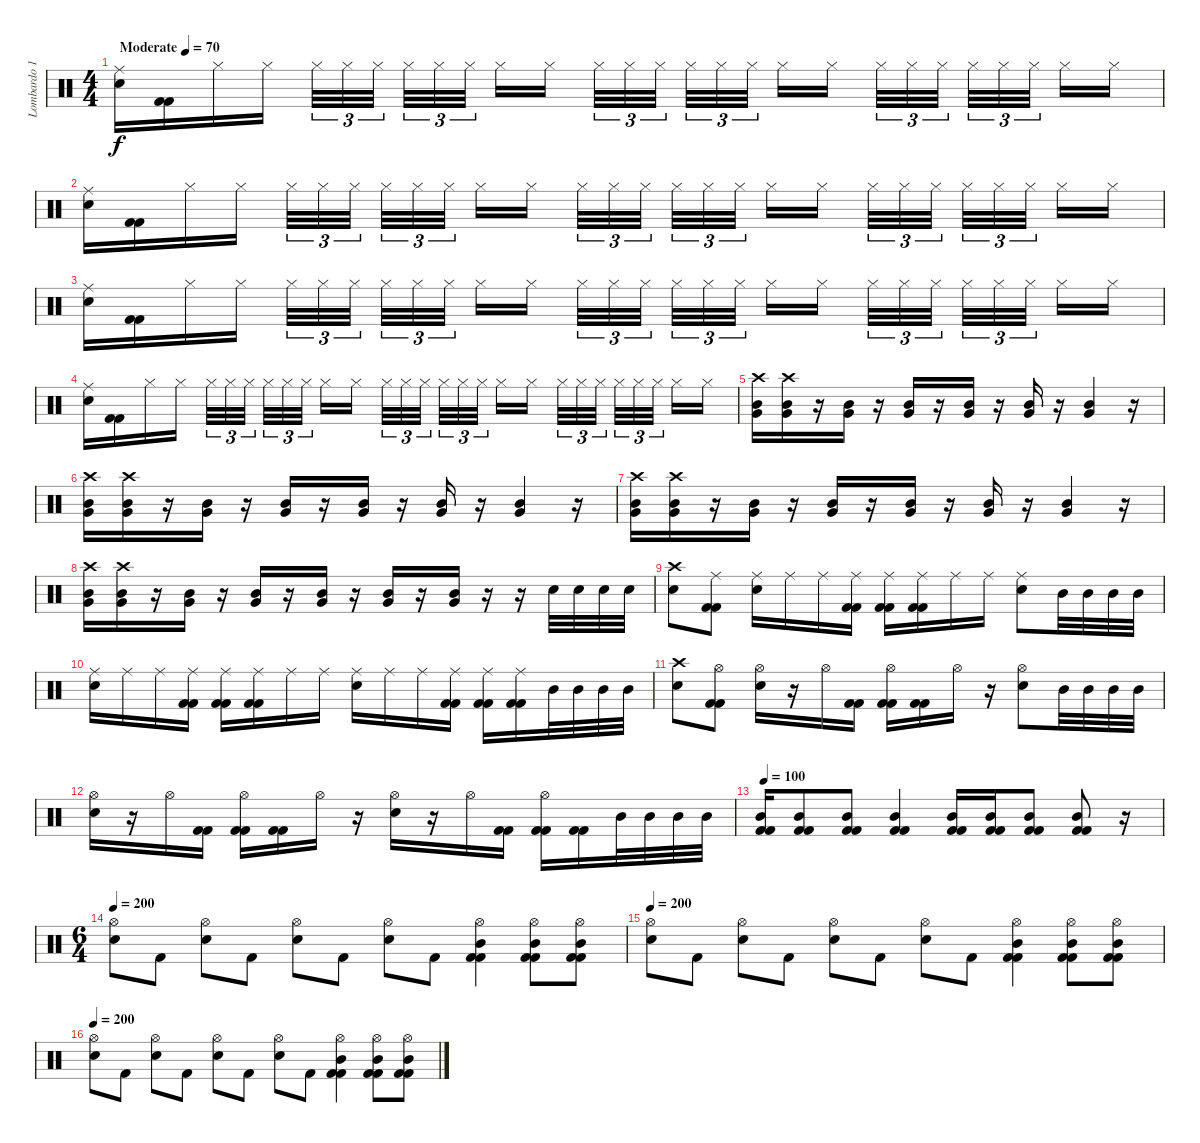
\track ("Lombardo 1" "Lombardo 1") {instrument percussion}
\staff {score}
\articulation defaults
\ts (4 4)
\tempo (70 "Moderate")
\clef neutral
\ks c
("Ride (middle)" "Electric Snare (hit)").16{dy f} ("Kick (hit) 2" "Kick (hit) 2").16 "Hi-Hat (closed)".16 "Hi-Hat (closed)".16 "Hi-Hat (closed)".32{tu (3 2)} "Hi-Hat (closed)".32{tu (3 2)} "Hi-Hat (closed)".32{tu (3 2) beam splitsecondary} "Hi-Hat (closed)".32{tu (3 2)} "Hi-Hat (closed)".32{tu (3 2)} "Hi-Hat (closed)".32{tu (3 2) beam splitsecondary} "Hi-Hat (closed)".16 "Hi-Hat (closed)".16 "Hi-Hat (closed)".32{tu (3 2)} "Hi-Hat (closed)".32{tu (3 2)} "Hi-Hat (closed)".32{tu (3 2) beam splitsecondary} "Hi-Hat (closed)".32{tu (3 2)} "Hi-Hat (closed)".32{tu (3 2)} "Hi-Hat (closed)".32{tu (3 2) beam splitsecondary} "Hi-Hat (closed)".16 "Hi-Hat (closed)".16 "Hi-Hat (closed)".32{tu (3 2)} "Hi-Hat (closed)".32{tu (3 2)} "Hi-Hat (closed)".32{tu (3 2) beam splitsecondary} "Hi-Hat (closed)".32{tu (3 2)} "Hi-Hat (closed)".32{tu (3 2)} "Hi-Hat (closed)".32{tu (3 2) beam splitsecondary} "Hi-Hat (closed)".16 "Hi-Hat (closed)".16 |
("Ride (middle)" "Electric Snare (hit)").16 ("Kick (hit) 2" "Kick (hit) 2").16 "Hi-Hat (closed)".16 "Hi-Hat (closed)".16 "Hi-Hat (closed)".32{tu (3 2)} "Hi-Hat (closed)".32{tu (3 2)} "Hi-Hat (closed)".32{tu (3 2) beam splitsecondary} "Hi-Hat (closed)".32{tu (3 2)} "Hi-Hat (closed)".32{tu (3 2)} "Hi-Hat (closed)".32{tu (3 2) beam splitsecondary} "Hi-Hat (closed)".16 "Hi-Hat (closed)".16 "Hi-Hat (closed)".32{tu (3 2)} "Hi-Hat (closed)".32{tu (3 2)} "Hi-Hat (closed)".32{tu (3 2) beam splitsecondary} "Hi-Hat (closed)".32{tu (3 2)} "Hi-Hat (closed)".32{tu (3 2)} "Hi-Hat (closed)".32{tu (3 2) beam splitsecondary} "Hi-Hat (closed)".16 "Hi-Hat (closed)".16 "Hi-Hat (closed)".32{tu (3 2)} "Hi-Hat (closed)".32{tu (3 2)} "Hi-Hat (closed)".32{tu (3 2) beam splitsecondary} "Hi-Hat (closed)".32{tu (3 2)} "Hi-Hat (closed)".32{tu (3 2)} "Hi-Hat (closed)".32{tu (3 2) beam splitsecondary} "Hi-Hat (closed)".16 "Hi-Hat (closed)".16 |
("Ride (middle)" "Electric Snare (hit)").16 ("Kick (hit) 2" "Kick (hit) 2").16 "Hi-Hat (closed)".16 "Hi-Hat (closed)".16 "Hi-Hat (closed)".32{tu (3 2)} "Hi-Hat (closed)".32{tu (3 2)} "Hi-Hat (closed)".32{tu (3 2) beam splitsecondary} "Hi-Hat (closed)".32{tu (3 2)} "Hi-Hat (closed)".32{tu (3 2)} "Hi-Hat (closed)".32{tu (3 2) beam splitsecondary} "Hi-Hat (closed)".16 "Hi-Hat (closed)".16 "Hi-Hat (closed)".32{tu (3 2)} "Hi-Hat (closed)".32{tu (3 2)} "Hi-Hat (closed)".32{tu (3 2) beam splitsecondary} "Hi-Hat (closed)".32{tu (3 2)} "Hi-Hat (closed)".32{tu (3 2)} "Hi-Hat (closed)".32{tu (3 2) beam splitsecondary} "Hi-Hat (closed)".16 "Hi-Hat (closed)".16 "Hi-Hat (closed)".32{tu (3 2)} "Hi-Hat (closed)".32{tu (3 2)} "Hi-Hat (closed)".32{tu (3 2) beam splitsecondary} "Hi-Hat (closed)".32{tu (3 2)} "Hi-Hat (closed)".32{tu (3 2)} "Hi-Hat (closed)".32{tu (3 2) beam splitsecondary} "Hi-Hat (closed)".16 "Hi-Hat (closed)".16 |
("Ride (middle)" "Electric Snare (hit)").16 ("Kick (hit) 2" "Kick (hit) 2").16 "Hi-Hat (closed)".16 "Hi-Hat (closed)".16 "Hi-Hat (closed)".32{tu (3 2)} "Hi-Hat (closed)".32{tu (3 2)} "Hi-Hat (closed)".32{tu (3 2) beam splitsecondary} "Hi-Hat (closed)".32{tu (3 2)} "Hi-Hat (closed)".32{tu (3 2)} "Hi-Hat (closed)".32{tu (3 2) beam splitsecondary} "Hi-Hat (closed)".16 "Hi-Hat (closed)".16 "Hi-Hat (closed)".32{tu (3 2)} "Hi-Hat (closed)".32{tu (3 2)} "Hi-Hat (closed)".32{tu (3 2) beam splitsecondary} "Hi-Hat (closed)".32{tu (3 2)} "Hi-Hat (closed)".32{tu (3 2)} "Hi-Hat (closed)".32{tu (3 2) beam splitsecondary} "Hi-Hat (closed)".16 "Hi-Hat (closed)".16 "Hi-Hat (closed)".32{tu (3 2)} "Hi-Hat (closed)".32{tu (3 2)} "Hi-Hat (closed)".32{tu (3 2) beam splitsecondary} "Hi-Hat (closed)".32{tu (3 2)} "Hi-Hat (closed)".32{tu (3 2)} "Hi-Hat (closed)".32{tu (3 2) beam splitsecondary} "Hi-Hat (closed)".16 "Hi-Hat (closed)".16 |
("Crash high (hit)" "Mid Tom (hit)" "Very Low Tom (hit)").16 ("Crash high (hit)" "Mid Tom (hit)" "Very Low Tom (hit)").16 r.16 ("Mid Tom (hit)" "Very Low Tom (hit)").16 r.16 ("Mid Tom (hit)" "Very Low Tom (hit)").16 r.16 ("Mid Tom (hit)" "Very Low Tom (hit)").16 r.16 ("Mid Tom (hit)" "Very Low Tom (hit)").16 r.16 ("Mid Tom (hit)" "Very Low Tom (hit)").4 r.16 |
("Crash high (hit)" "Mid Tom (hit)" "Very Low Tom (hit)").16 ("Crash high (hit)" "Mid Tom (hit)" "Very Low Tom (hit)").16 r.16 ("Mid Tom (hit)" "Very Low Tom (hit)").16 r.16 ("Mid Tom (hit)" "Very Low Tom (hit)").16 r.16 ("Mid Tom (hit)" "Very Low Tom (hit)").16 r.16 ("Mid Tom (hit)" "Very Low Tom (hit)").16 r.16 ("Mid Tom (hit)" "Very Low Tom (hit)").4 r.16 |
("Crash high (hit)" "Mid Tom (hit)" "Very Low Tom (hit)").16 ("Crash high (hit)" "Mid Tom (hit)" "Very Low Tom (hit)").16 r.16 ("Mid Tom (hit)" "Very Low Tom (hit)").16 r.16 ("Mid Tom (hit)" "Very Low Tom (hit)").16 r.16 ("Mid Tom (hit)" "Very Low Tom (hit)").16 r.16 ("Mid Tom (hit)" "Very Low Tom (hit)").16 r.16 ("Mid Tom (hit)" "Very Low Tom (hit)").4 r.16 |
("Crash high (hit)" "Mid Tom (hit)" "Very Low Tom (hit)").16 ("Crash high (hit)" "Mid Tom (hit)" "Very Low Tom (hit)").16 r.16 ("Mid Tom (hit)" "Very Low Tom (hit)").16 r.16 ("Mid Tom (hit)" "Very Low Tom (hit)").16 r.16 ("Mid Tom (hit)" "Very Low Tom (hit)").16 r.16 ("Mid Tom (hit)" "Very Low Tom (hit)").16 r.16 ("Mid Tom (hit)" "Very Low Tom (hit)").16 r.16 r.16 "Electric Snare (hit)".32 "Electric Snare (hit)".32 "Electric Snare (hit)".32 "Electric Snare (hit)".32 |
("Crash high (hit)" "Electric Snare (hit)").8 ("Ride (middle)" "Kick (hit) 2" "Kick (hit) 2").8 ("Ride (middle)" "Electric Snare (hit)").16 "Ride (middle)".16 "Ride (middle)".16 ("Ride (middle)" "Kick (hit) 2" "Kick (hit) 2").16 ("Ride (middle)" "Kick (hit) 2" "Kick (hit) 2").16 ("Ride (middle)" "Kick (hit) 2" "Kick (hit) 2").16 "Ride (middle)".16 "Ride (middle)".16 ("Ride (middle)" "Electric Snare (hit)").8 "Mid Tom (hit)".32 "Mid Tom (hit)".32 "Mid Tom (hit)".32 "Mid Tom (hit)".32 |
("Ride (middle)" "Electric Snare (hit)").16 "Ride (middle)".16 "Ride (middle)".16 ("Ride (middle)" "Kick (hit) 2" "Kick (hit) 2").16 ("Ride (middle)" "Kick (hit) 2" "Kick (hit) 2").16 ("Ride (middle)" "Kick (hit) 2" "Kick (hit) 2").16 "Ride (middle)".16 "Ride (middle)".16 ("Ride (middle)" "Electric Snare (hit)").16 "Ride (middle)".16 "Ride (middle)".16 ("Ride (middle)" "Kick (hit) 2" "Kick (hit) 2").16 ("Ride (middle)" "Kick (hit) 2" "Kick (hit) 2").16 ("Ride (middle)" "Kick (hit) 2" "Kick (hit) 2").16 "Mid Tom (hit)".32 "Mid Tom (hit)".32 "Mid Tom (hit)".32 "Mid Tom (hit)".32 |
("Crash high (hit)" "Electric Snare (hit)").8 ("Hi-Hat (open)" "Kick (hit) 2" "Kick (hit) 2").8 ("Hi-Hat (open)" "Electric Snare (hit)").16 r.16 "Hi-Hat (open)".16 ("Kick (hit) 2" "Kick (hit) 2").16 ("Hi-Hat (open)" "Kick (hit) 2" "Kick (hit) 2").16 ("Kick (hit) 2" "Kick (hit) 2").16 "Hi-Hat (open)".16 r.16 ("Hi-Hat (open)" "Electric Snare (hit)").8 "Mid Tom (hit)".32 "Mid Tom (hit)".32 "Mid Tom (hit)".32 "Mid Tom (hit)".32 |
("Hi-Hat (open)" "Electric Snare (hit)").16 r.16 "Hi-Hat (open)".16 ("Kick (hit) 2" "Kick (hit) 2").16 ("Hi-Hat (open)" "Kick (hit) 2" "Kick (hit) 2").16 ("Kick (hit) 2" "Kick (hit) 2").16 "Hi-Hat (open)".16 r.16 ("Hi-Hat (open)" "Electric Snare (hit)").16 r.16 "Hi-Hat (open)".16 ("Kick (hit) 2" "Kick (hit) 2").16 ("Hi-Hat (open)" "Kick (hit) 2" "Kick (hit) 2").16 ("Kick (hit) 2" "Kick (hit) 2").16 "Mid Tom (hit)".32 "Mid Tom (hit)".32 "Mid Tom (hit)".32 "Mid Tom (hit)".32 |
\tempo 100
("Mid Tom (hit)" "Kick (hit) 2" "Kick (hit) 2").16 ("Mid Tom (hit)" "Kick (hit) 2" "Kick (hit) 2").8 ("Mid Tom (hit)" "Kick (hit) 2" "Kick (hit) 2").8 ("Mid Tom (hit)" "Kick (hit) 2" "Kick (hit) 2").4 ("Mid Tom (hit)" "Kick (hit) 2" "Kick (hit) 2").16 ("Mid Tom (hit)" "Kick (hit) 2" "Kick (hit) 2").16 ("Mid Tom (hit)" "Kick (hit) 2" "Kick (hit) 2").8 ("Mid Tom (hit)" "Kick (hit) 2" "Kick (hit) 2").8 r.16 |
\ts (6 4)
\tempo 200
("Hi-Hat (open)" "Electric Snare (hit)").8 "Kick (hit) 2".8 ("Hi-Hat (open)" "Electric Snare (hit)").8 "Kick (hit) 2".8 ("Hi-Hat (open)" "Electric Snare (hit)").8 "Kick (hit) 2".8 ("Hi-Hat (open)" "Electric Snare (hit)").8 "Kick (hit) 2".8 ("Hi-Hat (open)" "Mid Tom (hit)" "Kick (hit) 2" "Kick (hit) 2").4 ("Hi-Hat (open)" "Mid Tom (hit)" "Kick (hit) 2" "Kick (hit) 2").8 ("Hi-Hat (open)" "Mid Tom (hit)" "Kick (hit) 2" "Kick (hit) 2").8 |
\tempo 200
("Hi-Hat (open)" "Electric Snare (hit)").8 "Kick (hit) 2".8 ("Hi-Hat (open)" "Electric Snare (hit)").8 "Kick (hit) 2".8 ("Hi-Hat (open)" "Electric Snare (hit)").8 "Kick (hit) 2".8 ("Hi-Hat (open)" "Electric Snare (hit)").8 "Kick (hit) 2".8 ("Hi-Hat (open)" "Mid Tom (hit)" "Kick (hit) 2" "Kick (hit) 2").4 ("Hi-Hat (open)" "Mid Tom (hit)" "Kick (hit) 2" "Kick (hit) 2").8 ("Hi-Hat (open)" "Mid Tom (hit)" "Kick (hit) 2" "Kick (hit) 2").8 |
\tempo 200
("Hi-Hat (open)" "Electric Snare (hit)").8 "Kick (hit) 2".8 ("Hi-Hat (open)" "Electric Snare (hit)").8 "Kick (hit) 2".8 ("Hi-Hat (open)" "Electric Snare (hit)").8 "Kick (hit) 2".8 ("Hi-Hat (open)" "Electric Snare (hit)").8 "Kick (hit) 2".8 ("Hi-Hat (open)" "Mid Tom (hit)" "Kick (hit) 2" "Kick (hit) 2").4 ("Hi-Hat (open)" "Mid Tom (hit)" "Kick (hit) 2" "Kick (hit) 2").8 ("Hi-Hat (open)" "Mid Tom (hit)" "Kick (hit) 2" "Kick (hit) 2").8
